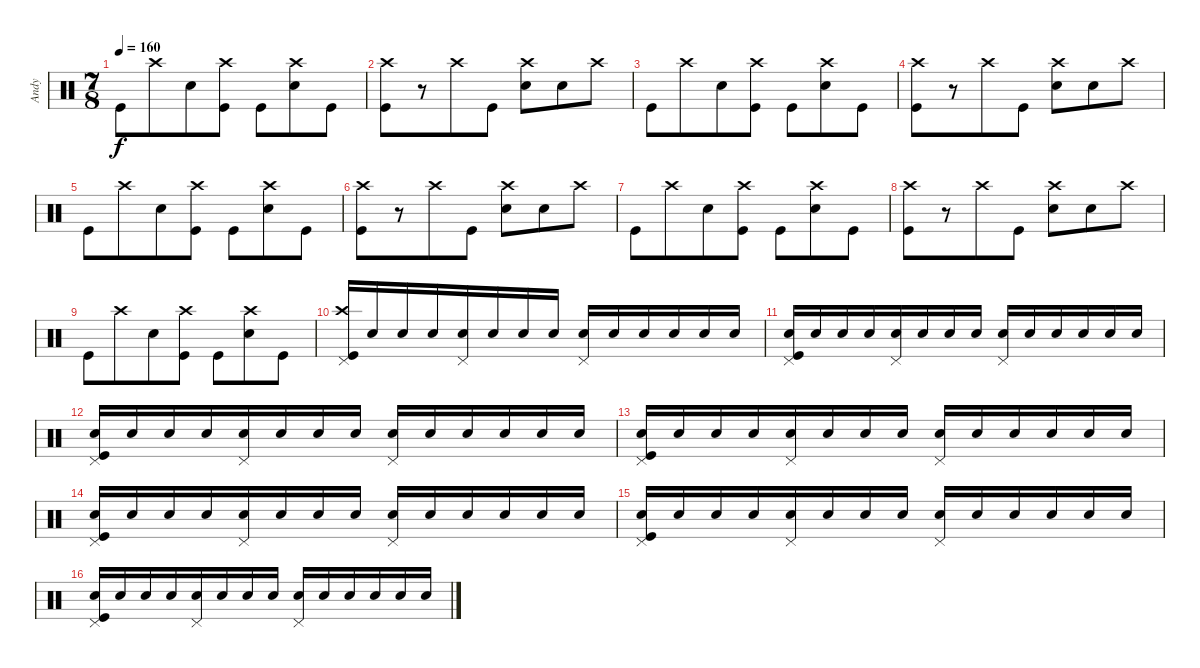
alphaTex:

\track ("Andy" "Andy") {instrument percussion}
\staff {score}
\articulation defaults
\ts (7 8)
\tempo 160
\clef neutral
\ks c "Kick (hit)".8{dy f} "Crash high (hit)".8 "Snare (hit) 2".8
("Kick (hit)" "Crash high (hit)").8 "Kick (hit)".8 ("Snare (hit) 2" "Crash high (hit)").8 "Kick (hit)".8 |
("Kick (hit)" "Crash high (hit)").8 r.8 "Crash high (hit)".8 "Kick (hit)".8 ("Snare (hit) 2" "Crash high (hit)").8 "Snare (hit) 2".8 "Crash high (hit)".8 |
"Kick (hit)".8 "Crash high (hit)".8 "Snare (hit) 2".8 ("Kick (hit)" "Crash high (hit)").8 "Kick (hit)".8 ("Snare (hit) 2" "Crash high (hit)").8 "Kick (hit)".8 |
("Kick (hit)" "Crash high (hit)").8 r.8 "Crash high (hit)".8 "Kick (hit)".8 ("Snare (hit) 2" "Crash high (hit)").8 "Snare (hit) 2".8 "Crash high (hit)".8 |
"Kick (hit)".8 "Crash high (hit)".8 "Snare (hit) 2".8 ("Kick (hit)" "Crash high (hit)").8 "Kick (hit)".8 ("Snare (hit) 2" "Crash high (hit)").8 "Kick (hit)".8 |
("Kick (hit)" "Crash high (hit)").8 r.8 "Crash high (hit)".8 "Kick (hit)".8 ("Snare (hit) 2" "Crash high (hit)").8 "Snare (hit) 2".8 "Crash high (hit)".8 |
"Kick (hit)".8 "Crash high (hit)".8 "Snare (hit) 2".8 ("Kick (hit)" "Crash high (hit)").8 "Kick (hit)".8 ("Snare (hit) 2" "Crash high (hit)").8 "Kick (hit)".8 |
("Kick (hit)" "Crash high (hit)").8 r.8 "Crash high (hit)".8 "Kick (hit)".8 ("Snare (hit) 2" "Crash high (hit)").8 "Snare (hit) 2".8 "Crash high (hit)".8 |
"Kick (hit)".8 "Crash high (hit)".8 "Snare (hit) 2".8 ("Kick (hit)" "Crash high (hit)").8 "Kick (hit)".8 ("Snare (hit) 2" "Crash high (hit)").8 "Kick (hit)".8 |
("Kick (hit)" "Crash high (hit)" "Pedal Hi-Hat (hit)").16 "Snare (hit) 2".16 "Snare (hit) 2".16 "Snare (hit) 2".16 ("Snare (hit) 2" "Pedal Hi-Hat (hit)").16 "Snare (hit) 2".16 "Snare (hit) 2".16 "Snare (hit) 2".16 ("Snare (hit) 2" "Pedal Hi-Hat (hit)").16 "Snare (hit) 2".16 "Snare (hit) 2".16 "Snare (hit) 2".16 "Snare (hit) 2".16 "Snare (hit) 2".16 |
("Kick (hit)" "Snare (hit) 2" "Pedal Hi-Hat (hit)").16 "Snare (hit) 2".16 "Snare (hit) 2".16 "Snare (hit) 2".16 ("Snare (hit) 2" "Pedal Hi-Hat (hit)").16 "Snare (hit) 2".16 "Snare (hit) 2".16 "Snare (hit) 2".16 ("Snare (hit) 2" "Pedal Hi-Hat (hit)").16 "Snare (hit) 2".16 "Snare (hit) 2".16 "Snare (hit) 2".16 "Snare (hit) 2".16 "Snare (hit) 2".16 |
("Kick (hit)" "Snare (hit) 2" "Pedal Hi-Hat (hit)").16 "Snare (hit) 2".16 "Snare (hit) 2".16 "Snare (hit) 2".16 ("Snare (hit) 2" "Pedal Hi-Hat (hit)").16 "Snare (hit) 2".16 "Snare (hit) 2".16 "Snare (hit) 2".16 ("Snare (hit) 2" "Pedal Hi-Hat (hit)").16 "Snare (hit) 2".16 "Snare (hit) 2".16 "Snare (hit) 2".16 "Snare (hit) 2".16 "Snare (hit) 2".16 |
("Kick (hit)" "Snare (hit) 2" "Pedal Hi-Hat (hit)").16 "Snare (hit) 2".16 "Snare (hit) 2".16 "Snare (hit) 2".16 ("Snare (hit) 2" "Pedal Hi-Hat (hit)").16 "Snare (hit) 2".16 "Snare (hit) 2".16 "Snare (hit) 2".16 ("Snare (hit) 2" "Pedal Hi-Hat (hit)").16 "Snare (hit) 2".16 "Snare (hit) 2".16 "Snare (hit) 2".16 "Snare (hit) 2".16 "Snare (hit) 2".16 |
("Kick (hit)" "Snare (hit) 2" "Pedal Hi-Hat (hit)").16 "Snare (hit) 2".16 "Snare (hit) 2".16 "Snare (hit) 2".16 ("Snare (hit) 2" "Pedal Hi-Hat (hit)").16 "Snare (hit) 2".16 "Snare (hit) 2".16 "Snare (hit) 2".16 ("Snare (hit) 2" "Pedal Hi-Hat (hit)").16 "Snare (hit) 2".16 "Snare (hit) 2".16 "Snare (hit) 2".16 "Snare (hit) 2".16 "Snare (hit) 2".16 |
("Kick (hit)" "Snare (hit) 2" "Pedal Hi-Hat (hit)").16 "Snare (hit) 2".16 "Snare (hit) 2".16 "Snare (hit) 2".16 ("Snare (hit) 2" "Pedal Hi-Hat (hit)").16 "Snare (hit) 2".16 "Snare (hit) 2".16 "Snare (hit) 2".16 ("Snare (hit) 2" "Pedal Hi-Hat (hit)").16 "Snare (hit) 2".16 "Snare (hit) 2".16 "Snare (hit) 2".16 "Snare (hit) 2".16 "Snare (hit) 2".16 |
("Kick (hit)" "Snare (hit) 2" "Pedal Hi-Hat (hit)").16 "Snare (hit) 2".16 "Snare (hit) 2".16 "Snare (hit) 2".16 ("Snare (hit) 2" "Pedal Hi-Hat (hit)").16 "Snare (hit) 2".16 "Snare (hit) 2".16 "Snare (hit) 2".16 ("Snare (hit) 2" "Pedal Hi-Hat (hit)").16 "Snare (hit) 2".16 "Snare (hit) 2".16 "Snare (hit) 2".16 "Snare (hit) 2".16 "Snare (hit) 2".16
